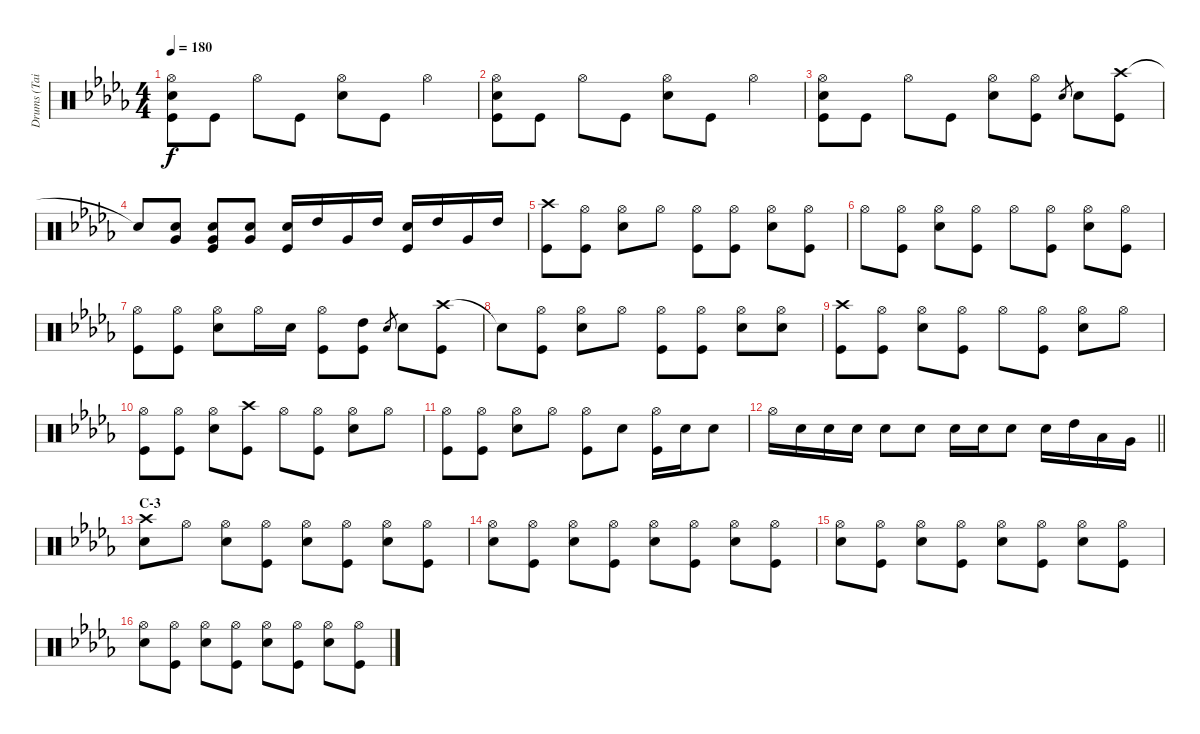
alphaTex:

\track ("Drums (Tainaka Ritsu)" "Drums (Tai") {instrument percussion}
\staff {score}
\articulation defaults
\ts (4 4)
\tempo 180
\clef neutral
\ks db
("Hi-Hat (open)" "Snare (hit) 2" "Kick (hit)").8{dy f} "Kick (hit)".8 "Hi-Hat (open)".8 "Kick (hit)".8 ("Hi-Hat (open)" "Snare (hit) 2").8 "Kick (hit)".8 "Hi-Hat (open)".4 |
("Hi-Hat (open)" "Snare (hit) 2" "Kick (hit)").8 "Kick (hit)".8 "Hi-Hat (open)".8 "Kick (hit)".8 ("Hi-Hat (open)" "Snare (hit) 2").8 "Kick (hit)".8 "Hi-Hat (open)".4 |
("Hi-Hat (open)" "Snare (hit) 2" "Kick (hit)").8 "Kick (hit)".8 "Hi-Hat (open)".8 "Kick (hit)".8 ("Hi-Hat (open)" "Snare (hit) 2").8 ("Hi-Hat (open)" "Kick (hit)").8 "Snare (hit) 2".8{gr} "Snare (hit) 2".8 ("Crash high (hit)" "Kick (hit)").8 |
"Snare (hit)"{t}.8 ("Snare (hit) 2" "Very Low Tom (hit)").8 ("Snare (hit) 2" "Very Low Tom (hit)" "Kick (hit)").8 ("Snare (hit) 2" "Very Low Tom (hit)").8 ("Snare (hit) 2" "Kick (hit)").16 "High Tom (hit)".16 "Very Low Tom (hit)".16 "High Tom (hit)".16 ("Snare (hit) 2" "Kick (hit)").16 "High Tom (hit)".16 "Very Low Tom (hit)".16 "High Tom (hit)".16 |
("Crash high (hit)" "Kick (hit)").8 ("Hi-Hat (open)" "Kick (hit)").8 ("Hi-Hat (open)" "Snare (hit) 2").8 "Hi-Hat (open)".8 ("Hi-Hat (open)" "Kick (hit)").8 ("Hi-Hat (open)" "Kick (hit)").8 ("Hi-Hat (open)" "Snare (hit) 2").8 ("Hi-Hat (open)" "Kick (hit)").8 |
"Hi-Hat (open)".8 ("Hi-Hat (open)" "Kick (hit)").8 ("Hi-Hat (open)" "Snare (hit) 2").8 ("Hi-Hat (open)" "Kick (hit)").8 "Hi-Hat (open)".8 ("Hi-Hat (open)" "Kick (hit)").8 ("Hi-Hat (open)" "Snare (hit) 2").8 ("Hi-Hat (open)" "Kick (hit)").8 |
("Hi-Hat (open)" "Kick (hit)").8 ("Hi-Hat (open)" "Kick (hit)").8 ("Hi-Hat (open)" "Snare (hit) 2").8 "Hi-Hat (open)".16 "Snare (hit) 2".16 ("Hi-Hat (open)" "Kick (hit)").8 ("High Tom (hit)" "Kick (hit)").8 "Snare (hit) 2".8{gr} "Snare (hit) 2".8 ("Crash high (hit)" "Kick (hit)").8 |
"Snare (hit)"{t}.8 ("Hi-Hat (open)" "Kick (hit)").8 ("Hi-Hat (open)" "Snare (hit) 2").8 "Hi-Hat (open)".8 ("Hi-Hat (open)" "Kick (hit)").8 ("Hi-Hat (open)" "Kick (hit)").8 ("Hi-Hat (open)" "Snare (hit) 2").8 ("Hi-Hat (open)" "Snare (hit) 2").8 |
("Crash high (hit)" "Kick (hit)").8 ("Hi-Hat (open)" "Kick (hit)").8 ("Hi-Hat (open)" "Snare (hit) 2").8 ("Hi-Hat (open)" "Kick (hit)").8 "Hi-Hat (open)".8 ("Hi-Hat (open)" "Kick (hit)").8 ("Hi-Hat (open)" "Snare (hit) 2").8 "Hi-Hat (open)".8 |
("Hi-Hat (open)" "Kick (hit)").8 ("Hi-Hat (open)" "Kick (hit)").8 ("Hi-Hat (open)" "Snare (hit) 2").8 ("Crash high (hit)" "Kick (hit)").8 "Hi-Hat (open)".8 ("Hi-Hat (open)" "Kick (hit)").8 ("Hi-Hat (open)" "Snare (hit) 2").8 "Hi-Hat (open)".8 |
("Hi-Hat (open)" "Kick (hit)").8 ("Hi-Hat (open)" "Kick (hit)").8 ("Hi-Hat (open)" "Snare (hit) 2").8 "Hi-Hat (open)".8 ("Hi-Hat (open)" "Kick (hit)").8 "Snare (hit) 2".8 ("Hi-Hat (open)" "Kick (hit)").16 "Snare (hit) 2".16 "Snare (hit) 2".8 |
\barLineRight lightlight "Hi-Hat (open)".16 "Snare (hit) 2".16 "Snare (hit) 2".16 "Snare (hit) 2".16 "Snare (hit) 2".8 "Snare (hit) 2".8 "Snare (hit) 2".16 "Snare (hit) 2".16 "Snare (hit) 2".8 "Snare (hit) 2".16 "High Tom (hit)".16 "Low Tom (hit)".16 "Very Low Tom (hit)".16
|
\section ("" "C-3")
("Crash high (hit)" "Snare (hit) 2").8 "Hi-Hat (open)".8 ("Hi-Hat (open)" "Snare (hit) 2").8 ("Hi-Hat (open)" "Kick (hit)").8 ("Hi-Hat (open)" "Snare (hit) 2").8 ("Hi-Hat (open)" "Kick (hit)").8 ("Hi-Hat (open)" "Snare (hit) 2").8 ("Hi-Hat (open)" "Kick (hit)").8 |
("Hi-Hat (open)" "Snare (hit) 2").8 ("Hi-Hat (open)" "Kick (hit)").8 ("Hi-Hat (open)" "Snare (hit) 2").8 ("Hi-Hat (open)" "Kick (hit)").8 ("Hi-Hat (open)" "Snare (hit) 2").8 ("Hi-Hat (open)" "Kick (hit)").8 ("Hi-Hat (open)" "Snare (hit) 2").8 ("Hi-Hat (open)" "Kick (hit)").8 |
("Hi-Hat (open)" "Snare (hit) 2").8 ("Hi-Hat (open)" "Kick (hit)").8 ("Hi-Hat (open)" "Snare (hit) 2").8 ("Hi-Hat (open)" "Kick (hit)").8 ("Hi-Hat (open)" "Snare (hit) 2").8 ("Hi-Hat (open)" "Kick (hit)").8 ("Hi-Hat (open)" "Snare (hit) 2").8 ("Hi-Hat (open)" "Kick (hit)").8 |
("Hi-Hat (open)" "Snare (hit) 2").8 ("Hi-Hat (open)" "Kick (hit)").8 ("Hi-Hat (open)" "Snare (hit) 2").8 ("Hi-Hat (open)" "Kick (hit)").8 ("Hi-Hat (open)" "Snare (hit) 2").8 ("Hi-Hat (open)" "Kick (hit)").8 ("Hi-Hat (open)" "Snare (hit) 2").8 ("Hi-Hat (open)" "Kick (hit)").8
